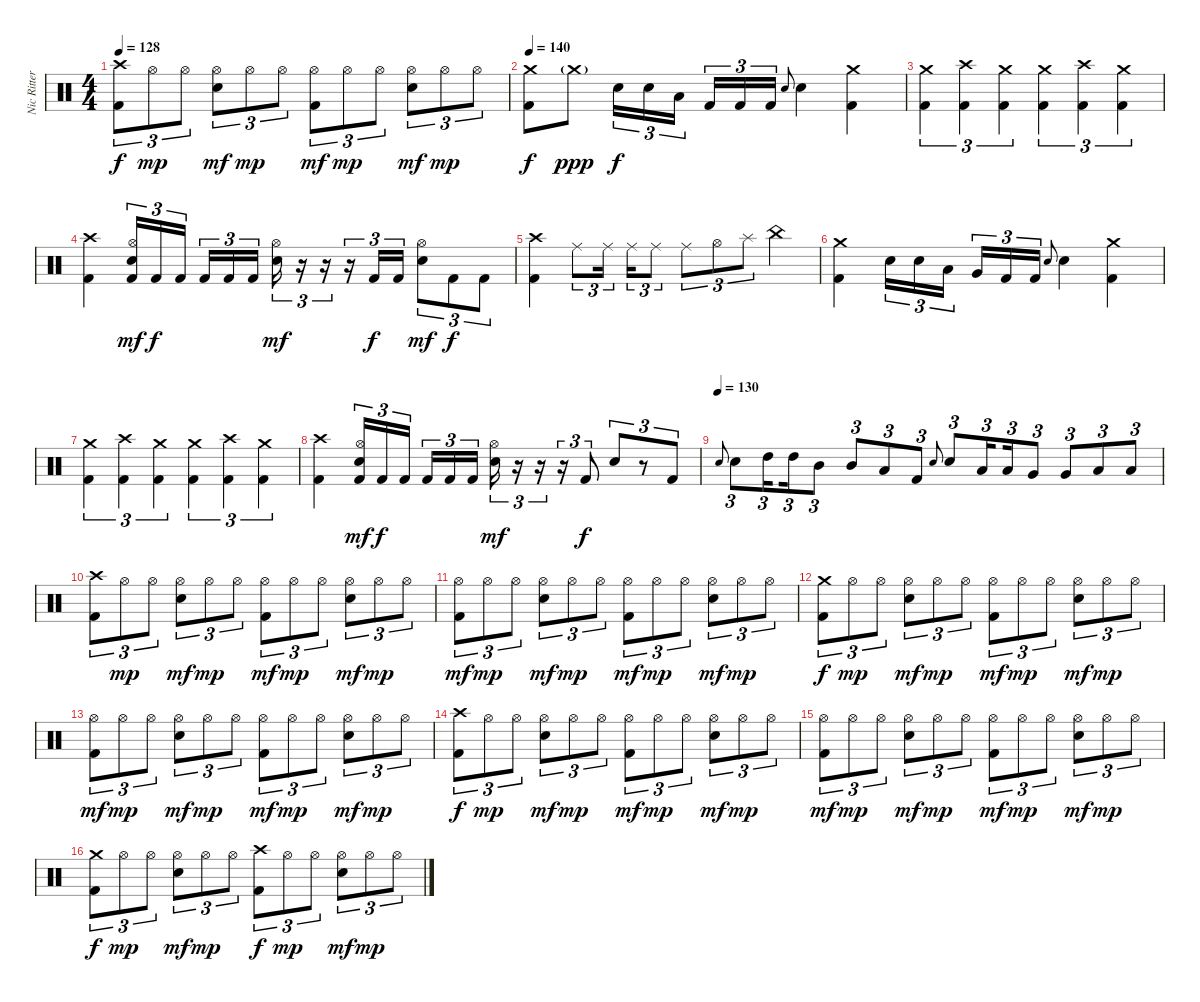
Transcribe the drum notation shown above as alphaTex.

\track ("Nic Ritter" "Nic Ritter") {instrument percussion}
\staff {score}
\articulation defaults
\ts (4 4)
\tempo 128
\clef neutral
\ks c
("Crash high (hit)" "Kick (hit) 2").8{tu (3 2) dy f} "Hi-Hat (open)".8{tu (3 2) dy mp} "Hi-Hat (open)".8{tu (3 2)} ("Hi-Hat (open)" "Electric Snare (hit)").8{tu (3 2) dy mf} "Hi-Hat (open)".8{tu (3 2) dy mp} "Hi-Hat (open)".8{tu (3 2)} ("Hi-Hat (open)" "Kick (hit) 2").8{tu (3 2) dy mf} "Hi-Hat (open)".8{tu (3 2) dy mp} "Hi-Hat (open)".8{tu (3 2)} ("Hi-Hat (open)" "Electric Snare (hit)").8{tu (3 2) dy mf} "Hi-Hat (open)".8{tu (3 2) dy mp} "Hi-Hat (open)".8{tu (3 2)} |
\tempo 140
("Crash medium (hit)" "Kick (hit) 2").8{dy f} "Crash medium (hit)"{g}.8{dy ppp} "Electric Snare (hit)".16{tu (3 2) dy f} "Electric Snare (hit)".16{tu (3 2)} "Low Tom (hit)".16{tu (3 2) beam splitsecondary} "Kick (hit) 2".16{tu (3 2)} "Kick (hit) 2".16{tu (3 2)} "Kick (hit) 2".16{tu (3 2)} "Electric Snare (hit)".8{gr onbeat} "Electric Snare (hit)".4 ("Crash medium (hit)" "Kick (hit) 2").4 |
("Crash medium (hit)" "Kick (hit) 2").4{tu (3 2)} ("Crash high (hit)" "Kick (hit) 2").4{tu (3 2)} ("Crash medium (hit)" "Kick (hit) 2").4{tu (3 2)} ("Crash medium (hit)" "Kick (hit) 2").4{tu (3 2)} ("Crash high (hit)" "Kick (hit) 2").4{tu (3 2)} ("Crash medium (hit)" "Kick (hit) 2").4{tu (3 2)} |
("Crash high (hit)" "Kick (hit) 2").4 ("Hi-Hat (open)" "Electric Snare (hit)" "Kick (hit) 2").16{tu (3 2) dy mf} "Kick (hit) 2".16{tu (3 2) dy f} "Kick (hit) 2".16{tu (3 2) beam splitsecondary} "Kick (hit) 2".16{tu (3 2)} "Kick (hit) 2".16{tu (3 2)} "Kick (hit) 2".16{tu (3 2)} ("Hi-Hat (open)" "Electric Snare (hit)").16{tu (3 2) dy mf} r.16{tu (3 2)} r.16{tu (3 2)} r.16{tu (3 2)} "Kick (hit) 2".16{tu (3 2) dy f} "Kick (hit) 2".16{tu (3 2)} ("Hi-Hat (open)" "Electric Snare (hit)").8{tu (3 2) dy mf} "Kick (hit) 2".8{tu (3 2) dy f} "Kick (hit) 2".8{tu (3 2)} |
("Crash high (hit)" "Kick (hit) 2").4 "Ride (middle)".8{tu (3 2)} "Ride (middle)".16{tu (3 2) beam splitsecondary} "Ride (middle)".16{tu (3 2)} "Ride (middle)".8{tu (3 2)} "Ride (middle)".8{tu (3 2)} "Hi-Hat (open)".8{tu (3 2)} "Splash (hit)".8{tu (3 2)} "China (hit)".4 |
("Crash medium (hit)" "Kick (hit) 2").4 "Electric Snare (hit)".16{tu (3 2)} "Electric Snare (hit)".16{tu (3 2)} "Low Tom (hit)".16{tu (3 2) beam splitsecondary} "Very Low Tom (hit)".16{tu (3 2)} "Kick (hit) 2".16{tu (3 2)} "Kick (hit) 2".16{tu (3 2)} "Electric Snare (hit)".8{gr onbeat} "Electric Snare (hit)".4 ("Crash medium (hit)" "Kick (hit) 2").4 |
("Crash medium (hit)" "Kick (hit) 2").4{tu (3 2)} ("Crash high (hit)" "Kick (hit) 2").4{tu (3 2)} ("Crash medium (hit)" "Kick (hit) 2").4{tu (3 2)} ("Crash medium (hit)" "Kick (hit) 2").4{tu (3 2)} ("Crash high (hit)" "Kick (hit) 2").4{tu (3 2)} ("Crash medium (hit)" "Kick (hit) 2").4{tu (3 2)} |
("Crash high (hit)" "Kick (hit) 2").4 ("Hi-Hat (open)" "Electric Snare (hit)" "Kick (hit) 2").16{tu (3 2) dy mf} "Kick (hit) 2".16{tu (3 2) dy f} "Kick (hit) 2".16{tu (3 2) beam splitsecondary} "Kick (hit) 2".16{tu (3 2)} "Kick (hit) 2".16{tu (3 2)} "Kick (hit) 2".16{tu (3 2)} ("Hi-Hat (open)" "Electric Snare (hit)").16{tu (3 2) dy mf} r.16{tu (3 2)} r.16{tu (3 2)} r.16{tu (3 2)} "Kick (hit) 2".8{tu (3 2) dy f} "Electric Snare (hit)".8{tu (3 2)} r.8{tu (3 2)} "Kick (hit) 2".8{tu (3 2)} |
\tempo (130)
"Electric Snare (hit)".8{gr onbeat} "Electric Snare (hit)".8{tu (3 2)} "High Tom (hit)".16{tu (3 2) beam splitsecondary} "High Tom (hit)".16{tu (3 2)} "Mid Tom (hit)".8{tu (3 2)} "Mid Tom (hit)".8{tu (3 2)} "Low Tom (hit)".8{tu (3 2)} "Kick (hit) 2".8{tu (3 2)} "Electric Snare (hit)".8{gr onbeat} "Electric Snare (hit)".8{tu (3 2)} "Low Tom (hit)".16{tu (3 2) beam splitsecondary} "Low Tom (hit)".16{tu (3 2)} "Very Low Tom (hit)".8{tu (3 2)} "Very Low Tom (hit)".8{tu (3 2)} "Low Floor Tom (hit)".8{tu (3 2)} "Low Floor Tom (hit)".8{tu (3 2)} |
("Crash high (hit)" "Kick (hit) 2").8{tu (3 2)} "Hi-Hat (open)".8{tu (3 2) dy mp} "Hi-Hat (open)".8{tu (3 2)} ("Hi-Hat (open)" "Electric Snare (hit)").8{tu (3 2) dy mf} "Hi-Hat (open)".8{tu (3 2) dy mp} "Hi-Hat (open)".8{tu (3 2)} ("Hi-Hat (open)" "Kick (hit) 2").8{tu (3 2) dy mf} "Hi-Hat (open)".8{tu (3 2) dy mp} "Hi-Hat (open)".8{tu (3 2)} ("Hi-Hat (open)" "Electric Snare (hit)").8{tu (3 2) dy mf} "Hi-Hat (open)".8{tu (3 2) dy mp} "Hi-Hat (open)".8{tu (3 2)} |
("Hi-Hat (open)" "Kick (hit) 2").8{tu (3 2) dy mf} "Hi-Hat (open)".8{tu (3 2) dy mp} "Hi-Hat (open)".8{tu (3 2)} ("Hi-Hat (open)" "Electric Snare (hit)").8{tu (3 2) dy mf} "Hi-Hat (open)".8{tu (3 2) dy mp} "Hi-Hat (open)".8{tu (3 2)} ("Hi-Hat (open)" "Kick (hit) 2").8{tu (3 2) dy mf} "Hi-Hat (open)".8{tu (3 2) dy mp} "Hi-Hat (open)".8{tu (3 2)} ("Hi-Hat (open)" "Electric Snare (hit)").8{tu (3 2) dy mf} "Hi-Hat (open)".8{tu (3 2) dy mp} "Hi-Hat (open)".8{tu (3 2)} |
("Crash medium (hit)" "Kick (hit) 2").8{tu (3 2) dy f} "Hi-Hat (open)".8{tu (3 2) dy mp} "Hi-Hat (open)".8{tu (3 2)} ("Hi-Hat (open)" "Electric Snare (hit)").8{tu (3 2) dy mf} "Hi-Hat (open)".8{tu (3 2) dy mp} "Hi-Hat (open)".8{tu (3 2)} ("Hi-Hat (open)" "Kick (hit) 2").8{tu (3 2) dy mf} "Hi-Hat (open)".8{tu (3 2) dy mp} "Hi-Hat (open)".8{tu (3 2)} ("Hi-Hat (open)" "Electric Snare (hit)").8{tu (3 2) dy mf} "Hi-Hat (open)".8{tu (3 2) dy mp} "Hi-Hat (open)".8{tu (3 2)} |
("Hi-Hat (open)" "Kick (hit) 2").8{tu (3 2) dy mf} "Hi-Hat (open)".8{tu (3 2) dy mp} "Hi-Hat (open)".8{tu (3 2)} ("Hi-Hat (open)" "Electric Snare (hit)").8{tu (3 2) dy mf} "Hi-Hat (open)".8{tu (3 2) dy mp} "Hi-Hat (open)".8{tu (3 2)} ("Hi-Hat (open)" "Kick (hit) 2").8{tu (3 2) dy mf} "Hi-Hat (open)".8{tu (3 2) dy mp} "Hi-Hat (open)".8{tu (3 2)} ("Hi-Hat (open)" "Electric Snare (hit)").8{tu (3 2) dy mf} "Hi-Hat (open)".8{tu (3 2) dy mp} "Hi-Hat (open)".8{tu (3 2)} |
("Crash high (hit)" "Kick (hit) 2").8{tu (3 2) dy f} "Hi-Hat (open)".8{tu (3 2) dy mp} "Hi-Hat (open)".8{tu (3 2)} ("Hi-Hat (open)" "Electric Snare (hit)").8{tu (3 2) dy mf} "Hi-Hat (open)".8{tu (3 2) dy mp} "Hi-Hat (open)".8{tu (3 2)} ("Hi-Hat (open)" "Kick (hit) 2").8{tu (3 2) dy mf} "Hi-Hat (open)".8{tu (3 2) dy mp} "Hi-Hat (open)".8{tu (3 2)} ("Hi-Hat (open)" "Electric Snare (hit)").8{tu (3 2) dy mf} "Hi-Hat (open)".8{tu (3 2) dy mp} "Hi-Hat (open)".8{tu (3 2)} |
("Hi-Hat (open)" "Kick (hit) 2").8{tu (3 2) dy mf} "Hi-Hat (open)".8{tu (3 2) dy mp} "Hi-Hat (open)".8{tu (3 2)} ("Hi-Hat (open)" "Electric Snare (hit)").8{tu (3 2) dy mf} "Hi-Hat (open)".8{tu (3 2) dy mp} "Hi-Hat (open)".8{tu (3 2)} ("Hi-Hat (open)" "Kick (hit) 2").8{tu (3 2) dy mf} "Hi-Hat (open)".8{tu (3 2) dy mp} "Hi-Hat (open)".8{tu (3 2)} ("Hi-Hat (open)" "Electric Snare (hit)").8{tu (3 2) dy mf} "Hi-Hat (open)".8{tu (3 2) dy mp} "Hi-Hat (open)".8{tu (3 2)} |
("Crash medium (hit)" "Kick (hit) 2").8{tu (3 2) dy f} "Hi-Hat (open)".8{tu (3 2) dy mp} "Hi-Hat (open)".8{tu (3 2)} ("Hi-Hat (open)" "Electric Snare (hit)").8{tu (3 2) dy mf} "Hi-Hat (open)".8{tu (3 2) dy mp} "Hi-Hat (open)".8{tu (3 2)} ("Crash high (hit)" "Kick (hit) 2").8{tu (3 2) dy f} "Hi-Hat (open)".8{tu (3 2) dy mp} "Hi-Hat (open)".8{tu (3 2)} ("Hi-Hat (open)" "Electric Snare (hit)").8{tu (3 2) dy mf} "Hi-Hat (open)".8{tu (3 2) dy mp} "Hi-Hat (open)".8{tu (3 2)}
